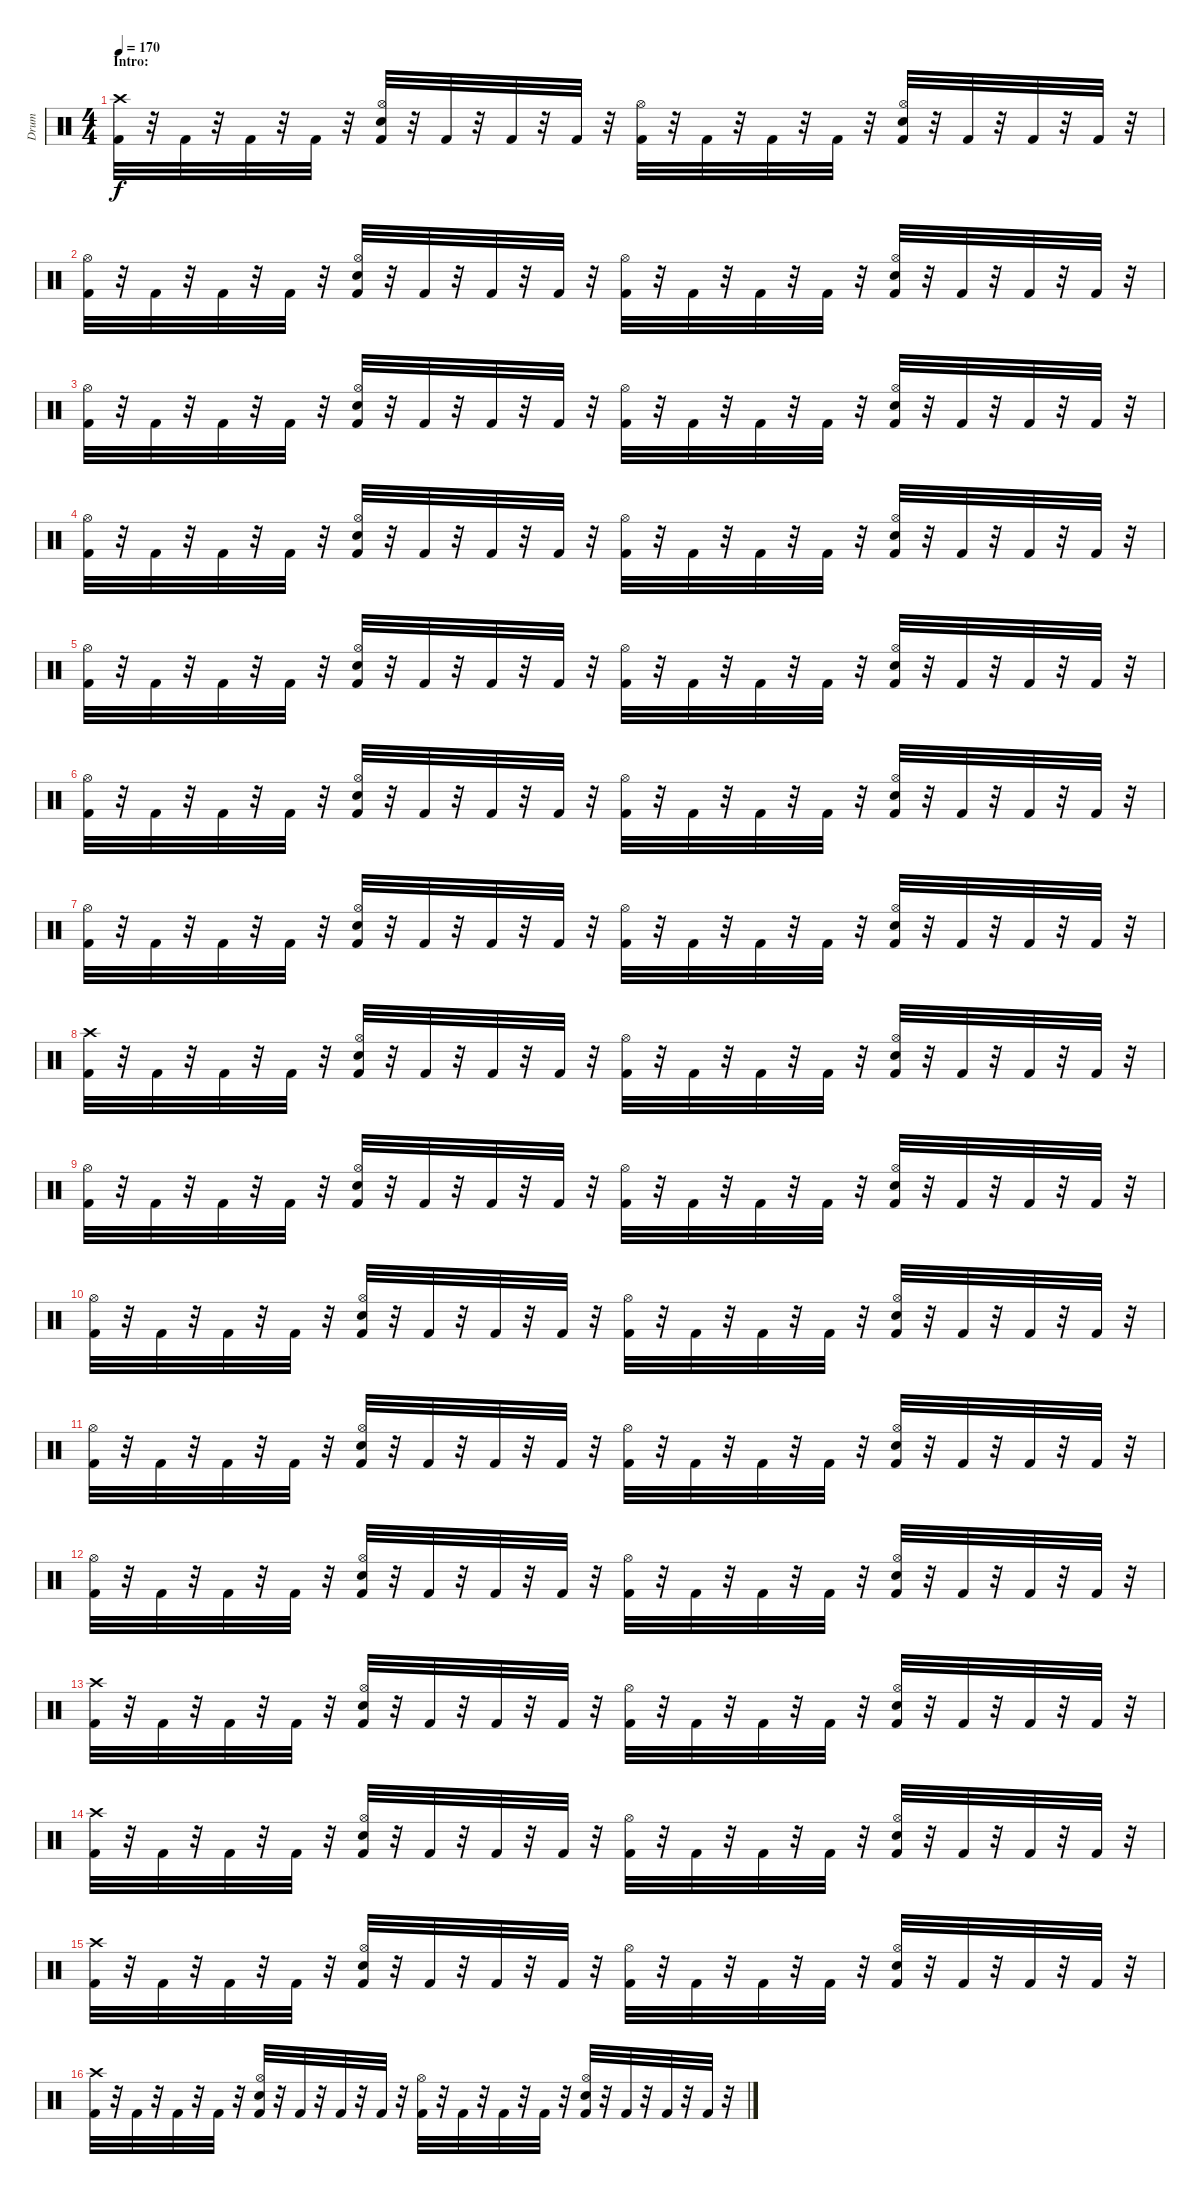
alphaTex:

\track ("Drum" "Drum") {instrument percussion}
\staff {score}
\articulation defaults
\ts (4 4)
\section ("" "Intro:")
\tempo 170
\clef neutral
\ks c
("Crash high (hit)" "Kick (hit) 2").32{dy f} r.32 "Kick (hit) 2".32 r.32 "Kick (hit) 2".32 r.32 "Kick (hit) 2".32 r.32 ("Hi-Hat (open)" "Snare (hit) 2" "Kick (hit) 2").32 r.32 "Kick (hit) 2".32 r.32 "Kick (hit) 2".32 r.32 "Kick (hit) 2".32 r.32 ("Hi-Hat (open)" "Kick (hit) 2").32 r.32 "Kick (hit) 2".32 r.32 "Kick (hit) 2".32 r.32 "Kick (hit) 2".32 r.32 ("Hi-Hat (open)" "Snare (hit) 2" "Kick (hit) 2").32 r.32 "Kick (hit) 2".32 r.32 "Kick (hit) 2".32 r.32 "Kick (hit) 2".32 r.32 |
("Hi-Hat (open)" "Kick (hit) 2").32 r.32 "Kick (hit) 2".32 r.32 "Kick (hit) 2".32 r.32 "Kick (hit) 2".32 r.32 ("Hi-Hat (open)" "Snare (hit) 2" "Kick (hit) 2").32 r.32 "Kick (hit) 2".32 r.32 "Kick (hit) 2".32 r.32 "Kick (hit) 2".32 r.32 ("Hi-Hat (open)" "Kick (hit) 2").32 r.32 "Kick (hit) 2".32 r.32 "Kick (hit) 2".32 r.32 "Kick (hit) 2".32 r.32 ("Hi-Hat (open)" "Snare (hit) 2" "Kick (hit) 2").32 r.32 "Kick (hit) 2".32 r.32 "Kick (hit) 2".32 r.32 "Kick (hit) 2".32 r.32 |
("Hi-Hat (open)" "Kick (hit) 2").32 r.32 "Kick (hit) 2".32 r.32 "Kick (hit) 2".32 r.32 "Kick (hit) 2".32 r.32 ("Hi-Hat (open)" "Snare (hit) 2" "Kick (hit) 2").32 r.32 "Kick (hit) 2".32 r.32 "Kick (hit) 2".32 r.32 "Kick (hit) 2".32 r.32 ("Hi-Hat (open)" "Kick (hit) 2").32 r.32 "Kick (hit) 2".32 r.32 "Kick (hit) 2".32 r.32 "Kick (hit) 2".32 r.32 ("Snare (hit) 2" "Hi-Hat (open)" "Kick (hit) 2").32 r.32 "Kick (hit) 2".32 r.32 "Kick (hit) 2".32 r.32 "Kick (hit) 2".32 r.32 |
("Hi-Hat (open)" "Kick (hit) 2").32 r.32 "Kick (hit) 2".32 r.32 "Kick (hit) 2".32 r.32 "Kick (hit) 2".32 r.32 ("Hi-Hat (open)" "Snare (hit) 2" "Kick (hit) 2").32 r.32 "Kick (hit) 2".32 r.32 "Kick (hit) 2".32 r.32 "Kick (hit) 2".32 r.32 ("Hi-Hat (open)" "Kick (hit) 2").32 r.32 "Kick (hit) 2".32 r.32 "Kick (hit) 2".32 r.32 "Kick (hit) 2".32 r.32 ("Snare (hit) 2" "Hi-Hat (open)" "Kick (hit) 2").32 r.32 "Kick (hit) 2".32 r.32 "Kick (hit) 2".32 r.32 "Kick (hit) 2".32 r.32 |
("Hi-Hat (open)" "Kick (hit) 2").32 r.32 "Kick (hit) 2".32 r.32 "Kick (hit) 2".32 r.32 "Kick (hit) 2".32 r.32 ("Kick (hit) 2" "Snare (hit) 2" "Hi-Hat (open)").32 r.32 "Kick (hit) 2".32 r.32 "Kick (hit) 2".32 r.32 "Kick (hit) 2".32 r.32 ("Kick (hit) 2" "Hi-Hat (open)").32 r.32 "Kick (hit) 2".32 r.32 "Kick (hit) 2".32 r.32 "Kick (hit) 2".32 r.32 ("Kick (hit) 2" "Snare (hit) 2" "Hi-Hat (open)").32 r.32 "Kick (hit) 2".32 r.32 "Kick (hit) 2".32 r.32 "Kick (hit) 2".32 r.32 |
("Kick (hit) 2" "Hi-Hat (open)").32 r.32 "Kick (hit) 2".32 r.32 "Kick (hit) 2".32 r.32 "Kick (hit) 2".32 r.32 ("Kick (hit) 2" "Snare (hit) 2" "Hi-Hat (open)").32 r.32 "Kick (hit) 2".32 r.32 "Kick (hit) 2".32 r.32 "Kick (hit) 2".32 r.32 ("Kick (hit) 2" "Hi-Hat (open)").32 r.32 "Kick (hit) 2".32 r.32 "Kick (hit) 2".32 r.32 "Kick (hit) 2".32 r.32 ("Kick (hit) 2" "Snare (hit) 2" "Hi-Hat (open)").32 r.32 "Kick (hit) 2".32 r.32 "Kick (hit) 2".32 r.32 "Kick (hit) 2".32 r.32 |
("Kick (hit) 2" "Hi-Hat (open)").32 r.32 "Kick (hit) 2".32 r.32 "Kick (hit) 2".32 r.32 "Kick (hit) 2".32 r.32 ("Kick (hit) 2" "Snare (hit) 2" "Hi-Hat (open)").32 r.32 "Kick (hit) 2".32 r.32 "Kick (hit) 2".32 r.32 "Kick (hit) 2".32 r.32 ("Kick (hit) 2" "Hi-Hat (open)").32 r.32 "Kick (hit) 2".32 r.32 "Kick (hit) 2".32 r.32 "Kick (hit) 2".32 r.32 ("Kick (hit) 2" "Hi-Hat (open)" "Snare (hit) 2").32 r.32 "Kick (hit) 2".32 r.32 "Kick (hit) 2".32 r.32 "Kick (hit) 2".32 r.32 |
("Crash high (hit)" "Kick (hit) 2").32 r.32 "Kick (hit) 2".32 r.32 "Kick (hit) 2".32 r.32 "Kick (hit) 2".32 r.32 ("Kick (hit) 2" "Snare (hit) 2" "Hi-Hat (open)").32 r.32 "Kick (hit) 2".32 r.32 "Kick (hit) 2".32 r.32 "Kick (hit) 2".32 r.32 ("Kick (hit) 2" "Hi-Hat (open)").32 r.32 "Kick (hit) 2".32 r.32 "Kick (hit) 2".32 r.32 "Kick (hit) 2".32 r.32 ("Snare (hit) 2" "Kick (hit) 2" "Hi-Hat (open)").32 r.32 "Kick (hit) 2".32 r.32 "Kick (hit) 2".32 r.32 "Kick (hit) 2".32 r.32 |
("Hi-Hat (open)" "Kick (hit) 2").32 r.32 "Kick (hit) 2".32 r.32 "Kick (hit) 2".32 r.32 "Kick (hit) 2".32 r.32 ("Kick (hit) 2" "Snare (hit) 2" "Hi-Hat (open)").32 r.32 "Kick (hit) 2".32 r.32 "Kick (hit) 2".32 r.32 "Kick (hit) 2".32 r.32 ("Kick (hit) 2" "Hi-Hat (open)").32 r.32 "Kick (hit) 2".32 r.32 "Kick (hit) 2".32 r.32 "Kick (hit) 2".32 r.32 ("Kick (hit) 2" "Snare (hit) 2" "Hi-Hat (open)").32 r.32 "Kick (hit) 2".32 r.32 "Kick (hit) 2".32 r.32 "Kick (hit) 2".32 r.32 |
("Kick (hit) 2" "Hi-Hat (open)").32 r.32 "Kick (hit) 2".32 r.32 "Kick (hit) 2".32 r.32 "Kick (hit) 2".32 r.32 ("Kick (hit) 2" "Snare (hit) 2" "Hi-Hat (open)").32 r.32 "Kick (hit) 2".32 r.32 "Kick (hit) 2".32 r.32 "Kick (hit) 2".32 r.32 ("Kick (hit) 2" "Hi-Hat (open)").32 r.32 "Kick (hit) 2".32 r.32 "Kick (hit) 2".32 r.32 "Kick (hit) 2".32 r.32 ("Kick (hit) 2" "Snare (hit) 2" "Hi-Hat (open)").32 r.32 "Kick (hit) 2".32 r.32 "Kick (hit) 2".32 r.32 "Kick (hit) 2".32 r.32 |
("Kick (hit) 2" "Hi-Hat (open)").32 r.32 "Kick (hit) 2".32 r.32 "Kick (hit) 2".32 r.32 "Kick (hit) 2".32 r.32 ("Kick (hit) 2" "Snare (hit) 2" "Hi-Hat (open)").32 r.32 "Kick (hit) 2".32 r.32 "Kick (hit) 2".32 r.32 "Kick (hit) 2".32 r.32 ("Kick (hit) 2" "Hi-Hat (open)").32 r.32 "Kick (hit) 2".32 r.32 "Kick (hit) 2".32 r.32 "Kick (hit) 2".32 r.32 ("Kick (hit) 2" "Hi-Hat (open)" "Snare (hit) 2").32 r.32 "Kick (hit) 2".32 r.32 "Kick (hit) 2".32 r.32 "Kick (hit) 2".32 r.32 |
("Kick (hit) 2" "Hi-Hat (open)").32 r.32 "Kick (hit) 2".32 r.32 "Kick (hit) 2".32 r.32 "Kick (hit) 2".32 r.32 ("Kick (hit) 2" "Snare (hit) 2" "Hi-Hat (open)").32 r.32 "Kick (hit) 2".32 r.32 "Kick (hit) 2".32 r.32 "Kick (hit) 2".32 r.32 ("Kick (hit) 2" "Hi-Hat (open)").32 r.32 "Kick (hit) 2".32 r.32 "Kick (hit) 2".32 r.32 "Kick (hit) 2".32 r.32 ("Kick (hit) 2" "Hi-Hat (open)" "Snare (hit) 2").32 r.32 "Kick (hit) 2".32 r.32 "Kick (hit) 2".32 r.32 "Kick (hit) 2".32 r.32 |
("Crash high (hit)" "Kick (hit) 2").32 r.32 "Kick (hit) 2".32 r.32 "Kick (hit) 2".32 r.32 "Kick (hit) 2".32 r.32 ("Hi-Hat (open)" "Snare (hit) 2" "Kick (hit) 2").32 r.32 "Kick (hit) 2".32 r.32 "Kick (hit) 2".32 r.32 "Kick (hit) 2".32 r.32 ("Hi-Hat (open)" "Kick (hit) 2").32 r.32 "Kick (hit) 2".32 r.32 "Kick (hit) 2".32 r.32 "Kick (hit) 2".32 r.32 ("Hi-Hat (open)" "Snare (hit) 2" "Kick (hit) 2").32 r.32 "Kick (hit) 2".32 r.32 "Kick (hit) 2".32 r.32 "Kick (hit) 2".32 r.32 |
("Crash high (hit)" "Kick (hit) 2").32 r.32 "Kick (hit) 2".32 r.32 "Kick (hit) 2".32 r.32 "Kick (hit) 2".32 r.32 ("Hi-Hat (open)" "Snare (hit) 2" "Kick (hit) 2").32 r.32 "Kick (hit) 2".32 r.32 "Kick (hit) 2".32 r.32 "Kick (hit) 2".32 r.32 ("Hi-Hat (open)" "Kick (hit) 2").32 r.32 "Kick (hit) 2".32 r.32 "Kick (hit) 2".32 r.32 "Kick (hit) 2".32 r.32 ("Hi-Hat (open)" "Snare (hit) 2" "Kick (hit) 2").32 r.32 "Kick (hit) 2".32 r.32 "Kick (hit) 2".32 r.32 "Kick (hit) 2".32 r.32 |
("Crash high (hit)" "Kick (hit) 2").32 r.32 "Kick (hit) 2".32 r.32 "Kick (hit) 2".32 r.32 "Kick (hit) 2".32 r.32 ("Hi-Hat (open)" "Snare (hit) 2" "Kick (hit) 2").32 r.32 "Kick (hit) 2".32 r.32 "Kick (hit) 2".32 r.32 "Kick (hit) 2".32 r.32 ("Hi-Hat (open)" "Kick (hit) 2").32 r.32 "Kick (hit) 2".32 r.32 "Kick (hit) 2".32 r.32 "Kick (hit) 2".32 r.32 ("Snare (hit) 2" "Hi-Hat (open)" "Kick (hit) 2").32 r.32 "Kick (hit) 2".32 r.32 "Kick (hit) 2".32 r.32 "Kick (hit) 2".32 r.32 |
("Crash high (hit)" "Kick (hit) 2").32 r.32 "Kick (hit) 2".32 r.32 "Kick (hit) 2".32 r.32 "Kick (hit) 2".32 r.32 ("Hi-Hat (open)" "Snare (hit) 2" "Kick (hit) 2").32 r.32 "Kick (hit) 2".32 r.32 "Kick (hit) 2".32 r.32 "Kick (hit) 2".32 r.32 ("Hi-Hat (open)" "Kick (hit) 2").32 r.32 "Kick (hit) 2".32 r.32 "Kick (hit) 2".32 r.32 "Kick (hit) 2".32 r.32 ("Hi-Hat (open)" "Kick (hit) 2" "Snare (hit) 2").32 r.32 "Kick (hit) 2".32 r.32 "Kick (hit) 2".32 r.32 "Kick (hit) 2".32 r.32
